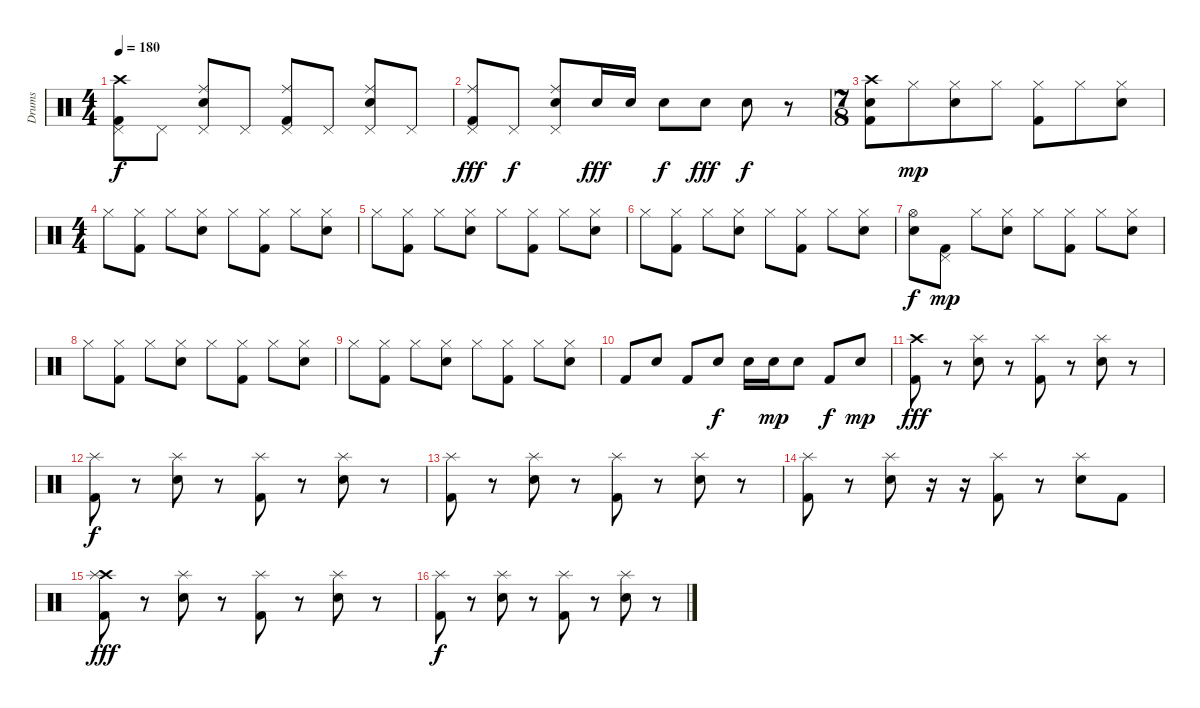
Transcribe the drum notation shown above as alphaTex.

\track ("Drums" "Drums") {instrument percussion}
\staff {score}
\articulation defaults
\ts (4 4)
\tempo 180
\clef neutral
\ks c
("Crash high (hit)" "Pedal Hi-Hat (hit)" "Kick (hit) 2").8{dy f} "Pedal Hi-Hat (hit)".8 ("Ride (middle)" "Pedal Hi-Hat (hit)" "Electric Snare (hit)").8 "Pedal Hi-Hat (hit)".8 ("Ride (middle)" "Pedal Hi-Hat (hit)" "Kick (hit) 2").8 "Pedal Hi-Hat (hit)".8 ("Ride (middle)" "Pedal Hi-Hat (hit)" "Electric Snare (hit)").8 "Pedal Hi-Hat (hit)".8 |
("Ride (middle)" "Pedal Hi-Hat (hit)" "Kick (hit) 2").8{dy fff} "Pedal Hi-Hat (hit)".8{dy f} ("Ride (middle)" "Pedal Hi-Hat (hit)" "Electric Snare (hit)").8 "Electric Snare (hit)".16{dy fff} "Electric Snare (hit)".16 "Electric Snare (hit)".8{dy f} "Electric Snare (hit)".8{dy fff} "Electric Snare (hit)".8{dy f} r.8 |
\ts (7 8)
("Crash high (hit)" "Electric Snare (hit)" "Kick (hit) 2").8 "Hi-Hat (closed)".8{dy mp} ("Hi-Hat (closed)" "Electric Snare (hit)").8 "Hi-Hat (closed)".8 ("Hi-Hat (closed)" "Kick (hit) 2").8 "Hi-Hat (closed)".8 ("Hi-Hat (closed)" "Electric Snare (hit)").8 |
\ts (4 4)
"Hi-Hat (closed)".8 ("Hi-Hat (closed)" "Kick (hit) 2").8 "Hi-Hat (closed)".8 ("Hi-Hat (closed)" "Electric Snare (hit)").8 "Hi-Hat (closed)".8 ("Hi-Hat (closed)" "Kick (hit) 2").8 "Hi-Hat (closed)".8 ("Hi-Hat (closed)" "Electric Snare (hit)").8 |
"Hi-Hat (closed)".8 ("Hi-Hat (closed)" "Kick (hit) 2").8 "Hi-Hat (closed)".8 ("Hi-Hat (closed)" "Electric Snare (hit)").8 "Hi-Hat (closed)".8 ("Hi-Hat (closed)" "Kick (hit) 2").8 "Hi-Hat (closed)".8 ("Hi-Hat (closed)" "Electric Snare (hit)").8 |
"Hi-Hat (closed)".8 ("Hi-Hat (closed)" "Kick (hit) 2").8 "Hi-Hat (closed)".8 ("Hi-Hat (closed)" "Electric Snare (hit)").8 "Hi-Hat (closed)".8 ("Hi-Hat (closed)" "Kick (hit) 2").8 "Hi-Hat (closed)".8 ("Hi-Hat (closed)" "Electric Snare (hit)").8 |
("Hi-Hat (open)" "Electric Snare (hit)").8{dy f} ("Pedal Hi-Hat (hit)" "Kick (hit) 2").8{dy mp} "Hi-Hat (closed)".8 ("Hi-Hat (closed)" "Electric Snare (hit)").8 "Hi-Hat (closed)".8 ("Hi-Hat (closed)" "Kick (hit) 2").8 "Hi-Hat (closed)".8 ("Hi-Hat (closed)" "Electric Snare (hit)").8 |
"Hi-Hat (closed)".8 ("Hi-Hat (closed)" "Kick (hit) 2").8 "Hi-Hat (closed)".8 ("Hi-Hat (closed)" "Electric Snare (hit)").8 "Hi-Hat (closed)".8 ("Hi-Hat (closed)" "Kick (hit) 2").8 "Hi-Hat (closed)".8 ("Hi-Hat (closed)" "Electric Snare (hit)").8 |
"Hi-Hat (closed)".8 ("Hi-Hat (closed)" "Kick (hit) 2").8 "Hi-Hat (closed)".8 ("Hi-Hat (closed)" "Electric Snare (hit)").8 "Hi-Hat (closed)".8 ("Hi-Hat (closed)" "Kick (hit) 2").8 "Hi-Hat (closed)".8 ("Hi-Hat (closed)" "Electric Snare (hit)").8 |
"Kick (hit) 2".8 "Electric Snare (hit)".8 "Kick (hit) 2".8 "Electric Snare (hit)".8{dy f} "Electric Snare (hit)".16 "Electric Snare (hit)".16{dy mp} "Electric Snare (hit)".8 "Kick (hit) 2".8{dy f} "Electric Snare (hit)".8{dy mp} |
("Crash high (hit)" "Kick (hit) 2").8{dy fff} r.8 ("Splash (hit)" "Electric Snare (hit)").8 r.8 ("Splash (hit)" "Kick (hit) 2").8 r.8 ("Splash (hit)" "Electric Snare (hit)").8 r.8 |
("Splash (hit)" "Kick (hit) 2").8{dy f} r.8 ("Splash (hit)" "Electric Snare (hit)").8 r.8 ("Splash (hit)" "Kick (hit) 2").8 r.8 ("Splash (hit)" "Electric Snare (hit)").8 r.8 |
("Splash (hit)" "Kick (hit) 2").8 r.8 ("Splash (hit)" "Electric Snare (hit)").8 r.8 ("Splash (hit)" "Kick (hit) 2").8 r.8 ("Splash (hit)" "Electric Snare (hit)").8 r.8 |
("Splash (hit)" "Kick (hit) 2").8 r.8 ("Splash (hit)" "Electric Snare (hit)").8 r.16 r.16 ("Splash (hit)" "Kick (hit) 2").8 r.8 ("Splash (hit)" "Electric Snare (hit)").8 "Kick (hit) 2".8 |
("Crash high (hit)" "Splash (hit)" "Kick (hit) 2").8{dy fff} r.8 ("Splash (hit)" "Electric Snare (hit)").8 r.8 ("Splash (hit)" "Kick (hit) 2").8 r.8 ("Splash (hit)" "Electric Snare (hit)").8 r.8 |
("Splash (hit)" "Kick (hit) 2").8{dy f} r.8 ("Splash (hit)" "Electric Snare (hit)").8 r.8 ("Splash (hit)" "Kick (hit) 2").8 r.8 ("Splash (hit)" "Electric Snare (hit)").8 r.8
